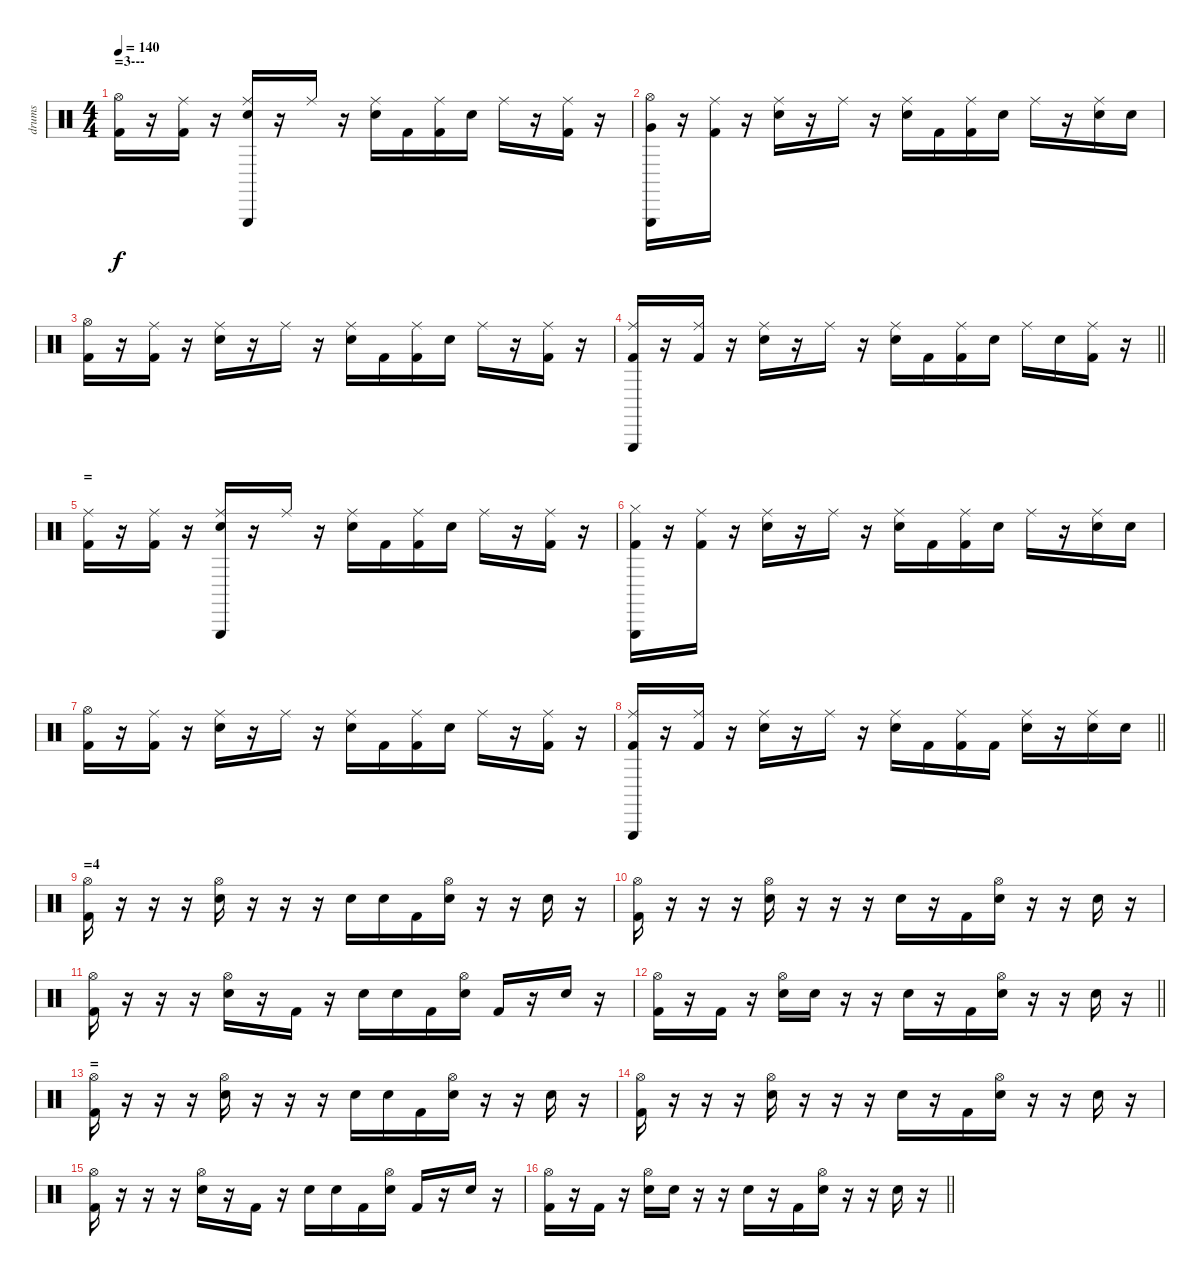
\track ("drums" "drums") {instrument percussion}
\staff {score}
\articulation defaults
\ts (4 4)
\section ("" "=3---")
\tempo 140
\clef neutral
\ks c
("Kick (hit) 2" "Hi-Hat (open)").16{dy f} r.16 ("Kick (hit) 2" "Ride (middle)").16 r.16 ("Electric Snare (hit)" "Ride (middle)" "Triangle (hit)").16 r.16 "Ride (middle)".16 r.16 ("Electric Snare (hit)" "Ride (middle)").16 "Kick (hit) 2".16 ("Kick (hit) 2" "Ride (middle)").16 "Electric Snare (hit)".16 "Ride (middle)".16 r.16 ("Kick (hit) 2" "Ride (middle)").16 r.16 |
("Very Low Tom (hit)" "Hi-Hat (open)" "Triangle (hit)").16 r.16 ("Kick (hit) 2" "Ride (middle)").16 r.16 ("Electric Snare (hit)" "Ride (middle)").16 r.16 "Ride (middle)".16 r.16 ("Electric Snare (hit)" "Ride (middle)").16 "Kick (hit) 2".16 ("Kick (hit) 2" "Ride (middle)").16 "Electric Snare (hit)".16 "Ride (middle)".16 r.16 ("Electric Snare (hit)" "Ride (middle)").16 "Electric Snare (hit)".16 |
("Kick (hit) 2" "Hi-Hat (open)").16 r.16 ("Kick (hit) 2" "Ride (middle)").16 r.16 ("Electric Snare (hit)" "Ride (middle)").16 r.16 "Ride (middle)".16 r.16 ("Electric Snare (hit)" "Ride (middle)").16 "Kick (hit) 2".16 ("Kick (hit) 2" "Ride (middle)").16 "Electric Snare (hit)".16 "Ride (middle)".16 r.16 ("Kick (hit) 2" "Ride (middle)").16 r.16 |
\barLineRight lightlight
("Kick (hit) 2" "Ride (middle)" "Triangle (hit)").16 r.16 ("Kick (hit) 2" "Ride (middle)").16 r.16 ("Electric Snare (hit)" "Ride (middle)").16 r.16 "Ride (middle)".16 r.16 ("Electric Snare (hit)" "Ride (middle)").16 "Kick (hit) 2".16 ("Kick (hit) 2" "Ride (middle)").16 "Electric Snare (hit)".16 "Ride (middle)".16 "Electric Snare (hit)".16 ("Kick (hit) 2" "Ride (middle)").16 r.16 |
\section ("" "=")
("Kick (hit) 2" "Ride (middle)").16 r.16 ("Kick (hit) 2" "Ride (middle)").16 r.16 ("Electric Snare (hit)" "Ride (middle)" "Triangle (hit)").16 r.16 "Ride (middle)".16 r.16 ("Electric Snare (hit)" "Ride (middle)").16 "Kick (hit) 2".16 ("Kick (hit) 2" "Ride (middle)").16 "Electric Snare (hit)".16 "Ride (middle)".16 r.16 ("Kick (hit) 2" "Ride (middle)").16 r.16 |
("Kick (hit) 2" "Hi-Hat (closed)" "Triangle (hit)").16 r.16 ("Kick (hit) 2" "Ride (middle)").16 r.16 ("Electric Snare (hit)" "Ride (middle)").16 r.16 "Ride (middle)".16 r.16 ("Electric Snare (hit)" "Ride (middle)").16 "Kick (hit) 2".16 ("Kick (hit) 2" "Ride (middle)").16 "Electric Snare (hit)".16 "Ride (middle)".16 r.16 ("Electric Snare (hit)" "Ride (middle)").16 "Electric Snare (hit)".16 |
("Kick (hit) 2" "Hi-Hat (open)").16 r.16 ("Kick (hit) 2" "Ride (middle)").16 r.16 ("Electric Snare (hit)" "Ride (middle)").16 r.16 "Ride (middle)".16 r.16 ("Electric Snare (hit)" "Ride (middle)").16 "Kick (hit) 2".16 ("Kick (hit) 2" "Ride (middle)").16 "Electric Snare (hit)".16 "Ride (middle)".16 r.16 ("Kick (hit) 2" "Ride (middle)").16 r.16 |
\barLineRight lightlight
("Kick (hit) 2" "Ride (middle)" "Triangle (hit)").16 r.16 ("Kick (hit) 2" "Ride (middle)").16 r.16 ("Electric Snare (hit)" "Ride (middle)").16 r.16 "Ride (middle)".16 r.16 ("Electric Snare (hit)" "Ride (middle)").16 "Kick (hit) 2".16 ("Kick (hit) 2" "Ride (middle)").16 "Kick (hit) 2".16 ("Electric Snare (hit)" "Ride (middle)").16 r.16 ("Electric Snare (hit)" "Ride (middle)").16 "Electric Snare (hit)".16 |
\section ("" "=4")
("Kick (hit) 2" "Hi-Hat (open)").16 r.16 r.16 r.16 ("Electric Snare (hit)" "Hi-Hat (open)").16 r.16 r.16 r.16 "Electric Snare (hit)".16 "Electric Snare (hit)".16 "Kick (hit) 2".16 ("Electric Snare (hit)" "Hi-Hat (open)").16 r.16 r.16 "Electric Snare (hit)".16 r.16 |
("Kick (hit) 2" "Hi-Hat (open)").16 r.16 r.16 r.16 ("Electric Snare (hit)" "Hi-Hat (open)").16 r.16 r.16 r.16 "Electric Snare (hit)".16 r.16 "Kick (hit) 2".16 ("Electric Snare (hit)" "Hi-Hat (open)").16 r.16 r.16 "Electric Snare (hit)".16 r.16 |
("Kick (hit) 2" "Hi-Hat (open)").16 r.16 r.16 r.16 ("Electric Snare (hit)" "Hi-Hat (open)").16 r.16 "Kick (hit) 2".16 r.16 "Electric Snare (hit)".16 "Electric Snare (hit)".16 "Kick (hit) 2".16 ("Electric Snare (hit)" "Hi-Hat (open)").16 "Kick (hit) 2".16 r.16 "Electric Snare (hit)".16 r.16 |
\barLineRight lightlight
("Kick (hit) 2" "Hi-Hat (open)").16 r.16 "Kick (hit) 2".16 r.16 ("Electric Snare (hit)" "Hi-Hat (open)").16 "Electric Snare (hit)".16 r.16 r.16 "Electric Snare (hit)".16 r.16 "Kick (hit) 2".16 ("Electric Snare (hit)" "Hi-Hat (open)").16 r.16 r.16 "Electric Snare (hit)".16 r.16 |
\section ("" "=")
("Kick (hit) 2" "Hi-Hat (open)").16 r.16 r.16 r.16 ("Electric Snare (hit)" "Hi-Hat (open)").16 r.16 r.16 r.16 "Electric Snare (hit)".16 "Electric Snare (hit)".16 "Kick (hit) 2".16 ("Electric Snare (hit)" "Hi-Hat (open)").16 r.16 r.16 "Electric Snare (hit)".16 r.16 |
("Kick (hit) 2" "Hi-Hat (open)").16 r.16 r.16 r.16 ("Electric Snare (hit)" "Hi-Hat (open)").16 r.16 r.16 r.16 "Electric Snare (hit)".16 r.16 "Kick (hit) 2".16 ("Electric Snare (hit)" "Hi-Hat (open)").16 r.16 r.16 "Electric Snare (hit)".16 r.16 |
("Kick (hit) 2" "Hi-Hat (open)").16 r.16 r.16 r.16 ("Electric Snare (hit)" "Hi-Hat (open)").16 r.16 "Kick (hit) 2".16 r.16 "Electric Snare (hit)".16 "Electric Snare (hit)".16 "Kick (hit) 2".16 ("Electric Snare (hit)" "Hi-Hat (open)").16 "Kick (hit) 2".16 r.16 "Electric Snare (hit)".16 r.16 |
\barLineRight lightlight
("Kick (hit) 2" "Hi-Hat (open)").16 r.16 "Kick (hit) 2".16 r.16 ("Electric Snare (hit)" "Hi-Hat (open)").16 "Electric Snare (hit)".16 r.16 r.16 "Electric Snare (hit)".16 r.16 "Kick (hit) 2".16 ("Electric Snare (hit)" "Hi-Hat (open)").16 r.16 r.16 "Electric Snare (hit)".16 r.16
